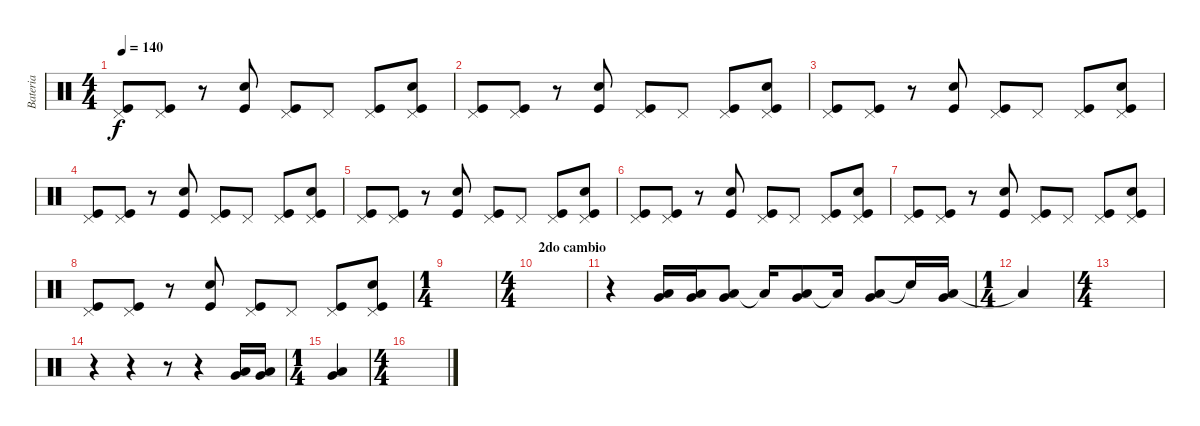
\track ("Bateria" "Bateria") {instrument percussion}
\staff {score}
\articulation defaults
\ts (4 4)
\tempo 140
\clef neutral
\ks c
("Kick (hit)" "Pedal Hi-Hat (hit)").8{dy f} ("Kick (hit)" "Pedal Hi-Hat (hit)").8 r.8 ("Kick (hit)" "Snare (hit) 2").8 ("Kick (hit)" "Pedal Hi-Hat (hit)").8 "Pedal Hi-Hat (hit)".8 ("Kick (hit)" "Pedal Hi-Hat (hit)").8 ("Kick (hit)" "Snare (hit) 2" "Pedal Hi-Hat (hit)").8 |
("Kick (hit)" "Pedal Hi-Hat (hit)").8 ("Kick (hit)" "Pedal Hi-Hat (hit)").8 r.8 ("Kick (hit)" "Snare (hit) 2").8 ("Kick (hit)" "Pedal Hi-Hat (hit)").8 "Pedal Hi-Hat (hit)".8 ("Kick (hit)" "Pedal Hi-Hat (hit)").8 ("Kick (hit)" "Snare (hit) 2" "Pedal Hi-Hat (hit)").8 |
("Kick (hit)" "Pedal Hi-Hat (hit)").8 ("Kick (hit)" "Pedal Hi-Hat (hit)").8 r.8 ("Kick (hit)" "Snare (hit) 2").8 ("Kick (hit)" "Pedal Hi-Hat (hit)").8 "Pedal Hi-Hat (hit)".8 ("Kick (hit)" "Pedal Hi-Hat (hit)").8 ("Kick (hit)" "Snare (hit) 2" "Pedal Hi-Hat (hit)").8 |
("Kick (hit)" "Pedal Hi-Hat (hit)").8 ("Kick (hit)" "Pedal Hi-Hat (hit)").8 r.8 ("Kick (hit)" "Snare (hit) 2").8 ("Kick (hit)" "Pedal Hi-Hat (hit)").8 "Pedal Hi-Hat (hit)".8 ("Kick (hit)" "Pedal Hi-Hat (hit)").8 ("Kick (hit)" "Snare (hit) 2" "Pedal Hi-Hat (hit)").8 |
("Kick (hit)" "Pedal Hi-Hat (hit)").8 ("Kick (hit)" "Pedal Hi-Hat (hit)").8 r.8 ("Kick (hit)" "Snare (hit) 2").8 ("Kick (hit)" "Pedal Hi-Hat (hit)").8 "Pedal Hi-Hat (hit)".8 ("Kick (hit)" "Pedal Hi-Hat (hit)").8 ("Kick (hit)" "Snare (hit) 2" "Pedal Hi-Hat (hit)").8 |
("Kick (hit)" "Pedal Hi-Hat (hit)").8 ("Kick (hit)" "Pedal Hi-Hat (hit)").8 r.8 ("Kick (hit)" "Snare (hit) 2").8 ("Kick (hit)" "Pedal Hi-Hat (hit)").8 "Pedal Hi-Hat (hit)".8 ("Kick (hit)" "Pedal Hi-Hat (hit)").8 ("Kick (hit)" "Snare (hit) 2" "Pedal Hi-Hat (hit)").8 |
("Kick (hit)" "Pedal Hi-Hat (hit)").8 ("Kick (hit)" "Pedal Hi-Hat (hit)").8 r.8 ("Kick (hit)" "Snare (hit) 2").8 ("Kick (hit)" "Pedal Hi-Hat (hit)").8 "Pedal Hi-Hat (hit)".8 ("Kick (hit)" "Pedal Hi-Hat (hit)").8 ("Kick (hit)" "Snare (hit) 2" "Pedal Hi-Hat (hit)").8 |
("Kick (hit)" "Pedal Hi-Hat (hit)").8 ("Kick (hit)" "Pedal Hi-Hat (hit)").8 r.8 ("Kick (hit)" "Snare (hit) 2").8 ("Kick (hit)" "Pedal Hi-Hat (hit)").8 "Pedal Hi-Hat (hit)".8 ("Kick (hit)" "Pedal Hi-Hat (hit)").8 ("Kick (hit)" "Snare (hit) 2" "Pedal Hi-Hat (hit)").8 |
\ts (1 4)
|
\ts (4 4)
\section ("" "2do cambio")
|
r.4 ("Low Floor Tom (hit)" "Very Low Tom (hit)").16 ("Low Floor Tom (hit)" "Very Low Tom (hit)").16 ("Low Floor Tom (hit)" "Very Low Tom (hit)").8 "Low Floor Tom (hit)"{t}.16 ("Low Floor Tom (hit)" "Very Low Tom (hit)").8 "Low Floor Tom (hit)"{t}.16 ("Low Floor Tom (hit)" "Very Low Tom (hit)").8 "Snare (hit)"{t}.16 ("Low Floor Tom (hit)" "Very Low Tom (hit)").16 |
\ts (1 4)
"Low Floor Tom (hit)"{t}.4 |
\ts (4 4)
|
r.4 r.4 r.8 r.4 ("Low Floor Tom (hit)" "Very Low Tom (hit)").16 ("Low Floor Tom (hit)" "Very Low Tom (hit)").16 |
\ts (1 4)
("Low Floor Tom (hit)" "Very Low Tom (hit)").4 |
\ts (4 4)
